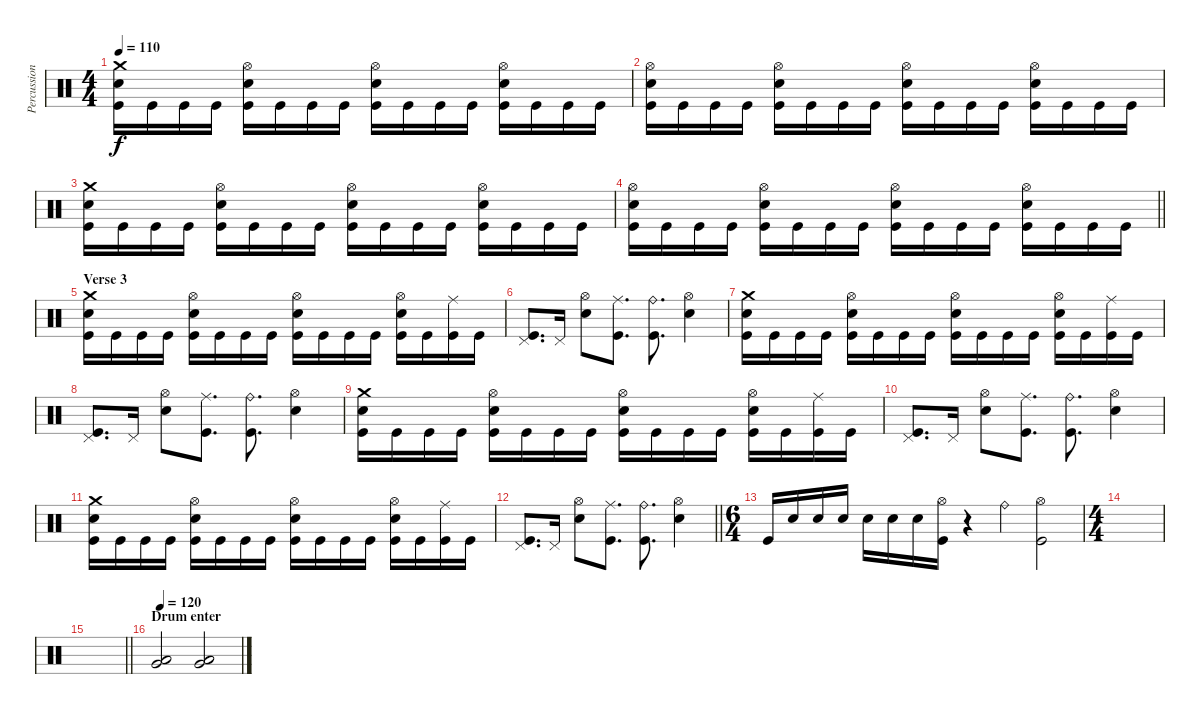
\track ("Percussions" "Percussion") {instrument percussion}
\staff {score}
\articulation defaults
\ts (4 4)
\tempo 110
\clef neutral
\ks c
("Crash medium (hit)" "Electric Snare (hit)" "Kick (hit)").16{dy f} "Kick (hit)".16 "Kick (hit)".16 "Kick (hit)".16 ("Hi-Hat (open)" "Electric Snare (hit)" "Kick (hit)").16 "Kick (hit)".16 "Kick (hit)".16 "Kick (hit)".16 ("Hi-Hat (open)" "Electric Snare (hit)" "Kick (hit)").16 "Kick (hit)".16 "Kick (hit)".16 "Kick (hit)".16 ("Hi-Hat (open)" "Electric Snare (hit)" "Kick (hit)").16 "Kick (hit)".16 "Kick (hit)".16 "Kick (hit)".16 |
("Hi-Hat (open)" "Electric Snare (hit)" "Kick (hit)").16 "Kick (hit)".16 "Kick (hit)".16 "Kick (hit)".16 ("Hi-Hat (open)" "Electric Snare (hit)" "Kick (hit)").16 "Kick (hit)".16 "Kick (hit)".16 "Kick (hit)".16 ("Hi-Hat (open)" "Electric Snare (hit)" "Kick (hit)").16 "Kick (hit)".16 "Kick (hit)".16 "Kick (hit)".16 ("Hi-Hat (open)" "Electric Snare (hit)" "Kick (hit)").16 "Kick (hit)".16 "Kick (hit)".16 "Kick (hit)".16 |
("Crash medium (hit)" "Electric Snare (hit)" "Kick (hit)").16 "Kick (hit)".16 "Kick (hit)".16 "Kick (hit)".16 ("Hi-Hat (open)" "Electric Snare (hit)" "Kick (hit)").16 "Kick (hit)".16 "Kick (hit)".16 "Kick (hit)".16 ("Hi-Hat (open)" "Electric Snare (hit)" "Kick (hit)").16 "Kick (hit)".16 "Kick (hit)".16 "Kick (hit)".16 ("Hi-Hat (open)" "Electric Snare (hit)" "Kick (hit)").16 "Kick (hit)".16 "Kick (hit)".16 "Kick (hit)".16 |
\barLineRight lightlight
("Hi-Hat (open)" "Electric Snare (hit)" "Kick (hit)").16 "Kick (hit)".16 "Kick (hit)".16 "Kick (hit)".16 ("Hi-Hat (open)" "Electric Snare (hit)" "Kick (hit)").16 "Kick (hit)".16 "Kick (hit)".16 "Kick (hit)".16 ("Hi-Hat (open)" "Electric Snare (hit)" "Kick (hit)").16 "Kick (hit)".16 "Kick (hit)".16 "Kick (hit)".16 ("Hi-Hat (open)" "Electric Snare (hit)" "Kick (hit)").16 "Kick (hit)".16 "Kick (hit)".16 "Kick (hit)".16 |
\section ("" "Verse 3")
("Crash medium (hit)" "Electric Snare (hit)" "Kick (hit)").16 "Kick (hit)".16 "Kick (hit)".16 "Kick (hit)".16 ("Hi-Hat (open)" "Electric Snare (hit)" "Kick (hit)").16 "Kick (hit)".16 "Kick (hit)".16 "Kick (hit)".16 ("Hi-Hat (open)" "Electric Snare (hit)" "Kick (hit)").16 "Kick (hit)".16 "Kick (hit)".16 "Kick (hit)".16 ("Hi-Hat (open)" "Electric Snare (hit)" "Kick (hit)").16 "Kick (hit)".16 ("Ride (middle)" "Kick (hit)").16 "Kick (hit)".16 |
("Pedal Hi-Hat (hit)" "Kick (hit)").8{d} "Pedal Hi-Hat (hit)".16 ("Hi-Hat (open)" "Electric Snare (hit)").8 ("Ride (middle)" "Kick (hit)").8{d} ("Ride (bell)" "Kick (hit)").8{d} ("Hi-Hat (open)" "Electric Snare (hit)").4 |
("Crash medium (hit)" "Electric Snare (hit)" "Kick (hit)").16 "Kick (hit)".16 "Kick (hit)".16 "Kick (hit)".16 ("Hi-Hat (open)" "Electric Snare (hit)" "Kick (hit)").16 "Kick (hit)".16 "Kick (hit)".16 "Kick (hit)".16 ("Hi-Hat (open)" "Electric Snare (hit)" "Kick (hit)").16 "Kick (hit)".16 "Kick (hit)".16 "Kick (hit)".16 ("Hi-Hat (open)" "Electric Snare (hit)" "Kick (hit)").16 "Kick (hit)".16 ("Ride (middle)" "Kick (hit)").16 "Kick (hit)".16 |
("Pedal Hi-Hat (hit)" "Kick (hit)").8{d} "Pedal Hi-Hat (hit)".16 ("Hi-Hat (open)" "Electric Snare (hit)").8 ("Ride (middle)" "Kick (hit)").8{d} ("Ride (bell)" "Kick (hit)").8{d} ("Hi-Hat (open)" "Electric Snare (hit)").4 |
("Crash medium (hit)" "Electric Snare (hit)" "Kick (hit)").16 "Kick (hit)".16 "Kick (hit)".16 "Kick (hit)".16 ("Hi-Hat (open)" "Electric Snare (hit)" "Kick (hit)").16 "Kick (hit)".16 "Kick (hit)".16 "Kick (hit)".16 ("Hi-Hat (open)" "Electric Snare (hit)" "Kick (hit)").16 "Kick (hit)".16 "Kick (hit)".16 "Kick (hit)".16 ("Hi-Hat (open)" "Electric Snare (hit)" "Kick (hit)").16 "Kick (hit)".16 ("Ride (middle)" "Kick (hit)").16 "Kick (hit)".16 |
("Pedal Hi-Hat (hit)" "Kick (hit)").8{d} "Pedal Hi-Hat (hit)".16 ("Hi-Hat (open)" "Electric Snare (hit)").8 ("Ride (middle)" "Kick (hit)").8{d} ("Ride (bell)" "Kick (hit)").8{d} ("Hi-Hat (open)" "Electric Snare (hit)").4 |
("Crash medium (hit)" "Electric Snare (hit)" "Kick (hit)").16 "Kick (hit)".16 "Kick (hit)".16 "Kick (hit)".16 ("Hi-Hat (open)" "Electric Snare (hit)" "Kick (hit)").16 "Kick (hit)".16 "Kick (hit)".16 "Kick (hit)".16 ("Hi-Hat (open)" "Electric Snare (hit)" "Kick (hit)").16 "Kick (hit)".16 "Kick (hit)".16 "Kick (hit)".16 ("Hi-Hat (open)" "Electric Snare (hit)" "Kick (hit)").16 "Kick (hit)".16 ("Ride (middle)" "Kick (hit)").16 "Kick (hit)".16 |
\barLineRight lightlight
("Pedal Hi-Hat (hit)" "Kick (hit)").8{d} "Pedal Hi-Hat (hit)".16 ("Hi-Hat (open)" "Electric Snare (hit)").8 ("Ride (middle)" "Kick (hit)").8{d} ("Ride (bell)" "Kick (hit)").8{d} ("Hi-Hat (open)" "Electric Snare (hit)").4 |
\ts (6 4)
\section ("" "")
"Kick (hit)".16 "Electric Snare (hit)".16 "Electric Snare (hit)".16 "Electric Snare (hit)".16 "Electric Snare (hit)".16 "Electric Snare (hit)".16 "Electric Snare (hit)".16 ("Hi-Hat (open)" "Kick (hit)").16 r.4 "Ride (bell)".4 ("Hi-Hat (open)" "Kick (hit)").2 |
\ts (4 4)
|
\barLineRight lightlight
|
\section ("" "Drum enter")
\tempo 120
("Very Low Tom (hit)" "Low Floor Tom (hit)").2 ("Very Low Tom (hit)" "Low Floor Tom (hit)").2
